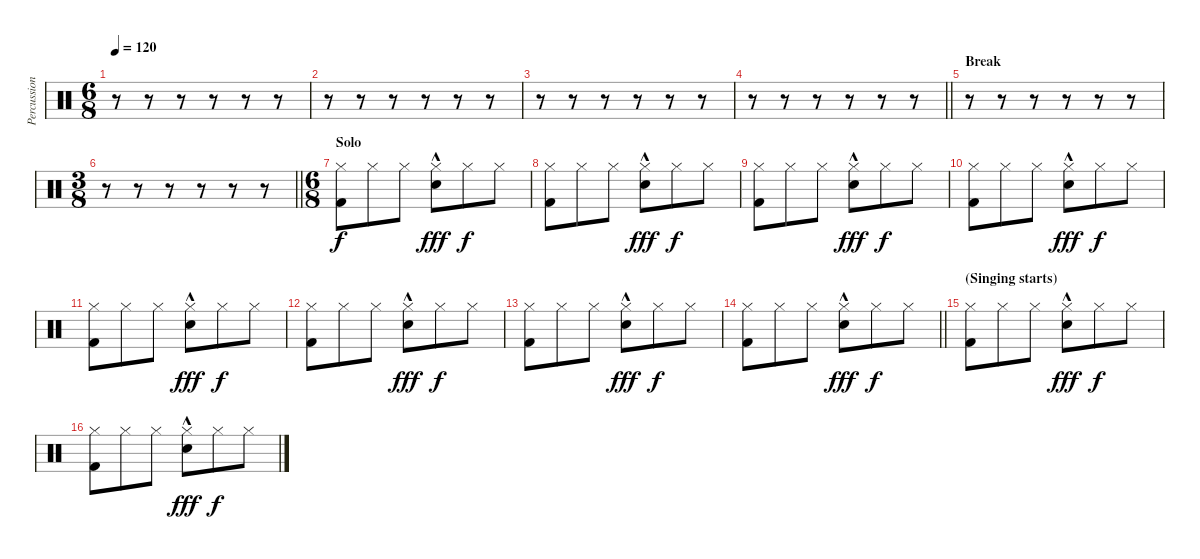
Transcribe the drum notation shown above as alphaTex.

\track ("Percussion" "Percussion") {mute instrument percussion}
\staff {score}
\articulation defaults
\ts (6 8)
\tempo 120
\clef neutral
\ks c
r.8{dy f} r.8 r.8 r.8 r.8 r.8 |
r.8 r.8 r.8 r.8 r.8 r.8 |
r.8 r.8 r.8 r.8 r.8 r.8 |
\barLineRight lightlight
r.8 r.8 r.8 r.8 r.8 r.8 |
\section ("" "Break")
r.8 r.8 r.8 r.8 r.8 r.8 |
\ts (3 8)
\barLineRight lightlight
r.8 r.8 r.8 r.8 r.8 r.8 |
\ts (6 8)
\section ("" "Solo")
("Kick (hit) 2" "Hi-Hat (closed)").8 "Hi-Hat (closed)".8 "Hi-Hat (closed)".8 ("Snare (hit) 2"{hac} "Hi-Hat (closed)").8{dy fff} "Hi-Hat (closed)".8{dy f} "Hi-Hat (closed)".8 |
("Kick (hit) 2" "Hi-Hat (closed)").8 "Hi-Hat (closed)".8 "Hi-Hat (closed)".8 ("Snare (hit) 2"{hac} "Hi-Hat (closed)").8{dy fff} "Hi-Hat (closed)".8{dy f} "Hi-Hat (closed)".8 |
("Kick (hit) 2" "Hi-Hat (closed)").8 "Hi-Hat (closed)".8 "Hi-Hat (closed)".8 ("Snare (hit) 2"{hac} "Hi-Hat (closed)").8{dy fff} "Hi-Hat (closed)".8{dy f} "Hi-Hat (closed)".8 |
("Kick (hit) 2" "Hi-Hat (closed)").8 "Hi-Hat (closed)".8 "Hi-Hat (closed)".8 ("Snare (hit) 2"{hac} "Hi-Hat (closed)").8{dy fff} "Hi-Hat (closed)".8{dy f} "Hi-Hat (closed)".8 |
("Kick (hit) 2" "Hi-Hat (closed)").8 "Hi-Hat (closed)".8 "Hi-Hat (closed)".8 ("Snare (hit) 2"{hac} "Hi-Hat (closed)").8{dy fff} "Hi-Hat (closed)".8{dy f} "Hi-Hat (closed)".8 |
("Kick (hit) 2" "Hi-Hat (closed)").8 "Hi-Hat (closed)".8 "Hi-Hat (closed)".8 ("Snare (hit) 2"{hac} "Hi-Hat (closed)").8{dy fff} "Hi-Hat (closed)".8{dy f} "Hi-Hat (closed)".8 |
("Kick (hit) 2" "Hi-Hat (closed)").8 "Hi-Hat (closed)".8 "Hi-Hat (closed)".8 ("Snare (hit) 2"{hac} "Hi-Hat (closed)").8{dy fff} "Hi-Hat (closed)".8{dy f} "Hi-Hat (closed)".8 |
\barLineRight lightlight
("Kick (hit) 2" "Hi-Hat (closed)").8 "Hi-Hat (closed)".8 "Hi-Hat (closed)".8 ("Snare (hit) 2"{hac} "Hi-Hat (closed)").8{dy fff} "Hi-Hat (closed)".8{dy f} "Hi-Hat (closed)".8 |
\section ("" "(Singing starts)")
("Kick (hit) 2" "Hi-Hat (closed)").8 "Hi-Hat (closed)".8 "Hi-Hat (closed)".8 ("Snare (hit) 2"{hac} "Hi-Hat (closed)").8{dy fff} "Hi-Hat (closed)".8{dy f} "Hi-Hat (closed)".8 |
("Kick (hit) 2" "Hi-Hat (closed)").8 "Hi-Hat (closed)".8 "Hi-Hat (closed)".8 ("Snare (hit) 2"{hac} "Hi-Hat (closed)").8{dy fff} "Hi-Hat (closed)".8{dy f} "Hi-Hat (closed)".8
